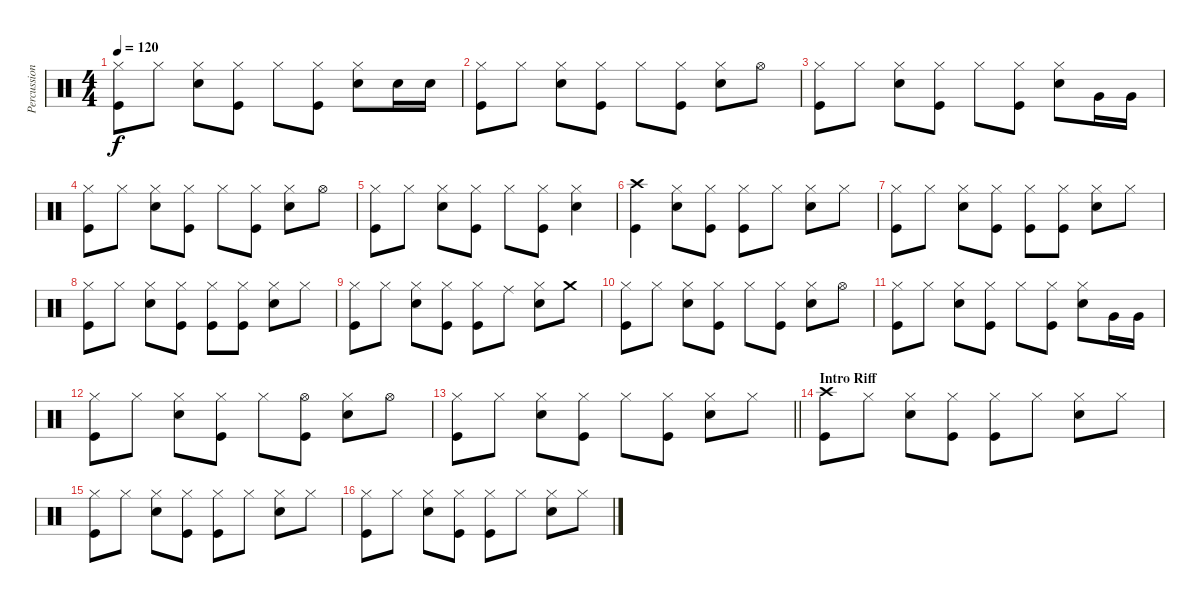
\track ("Percussion" "Percussion") {instrument percussion}
\staff {score}
\articulation defaults
\ts (4 4)
\tempo 120
\clef neutral
\ks c
("Kick (hit)" "Hi-Hat (closed)").8{dy f} "Hi-Hat (closed)".8 ("Hi-Hat (closed)" "Snare (hit) 2").8 ("Kick (hit)" "Hi-Hat (closed)").8 "Hi-Hat (closed)".8 ("Kick (hit)" "Hi-Hat (closed)").8 ("Hi-Hat (closed)" "Snare (hit) 2").8 "Snare (hit) 2".16 "Snare (hit) 2".16 |
("Kick (hit)" "Hi-Hat (closed)").8 "Hi-Hat (closed)".8 ("Hi-Hat (closed)" "Snare (hit) 2").8 ("Kick (hit)" "Hi-Hat (closed)").8 "Hi-Hat (closed)".8 ("Kick (hit)" "Hi-Hat (closed)").8 ("Hi-Hat (closed)" "Snare (hit) 2").8 "Hi-Hat (open)".8 |
("Kick (hit)" "Hi-Hat (closed)").8 "Hi-Hat (closed)".8 ("Hi-Hat (closed)" "Snare (hit) 2").8 ("Kick (hit)" "Hi-Hat (closed)").8 "Hi-Hat (closed)".8 ("Kick (hit)" "Hi-Hat (closed)").8 ("Hi-Hat (closed)" "Snare (hit) 2").8 "Very Low Tom (hit)".16 "Very Low Tom (hit)".16 |
("Kick (hit)" "Hi-Hat (closed)").8 "Hi-Hat (closed)".8 ("Hi-Hat (closed)" "Snare (hit) 2").8 ("Kick (hit)" "Hi-Hat (closed)").8 "Hi-Hat (closed)".8 ("Kick (hit)" "Hi-Hat (closed)").8 ("Hi-Hat (closed)" "Snare (hit) 2").8 "Hi-Hat (open)".8 |
("Kick (hit)" "Hi-Hat (closed)").8 "Hi-Hat (closed)".8 ("Hi-Hat (closed)" "Snare (hit) 2").8 ("Kick (hit)" "Hi-Hat (closed)").8 "Hi-Hat (closed)".8 ("Kick (hit)" "Hi-Hat (closed)").8 ("Hi-Hat (closed)" "Snare (hit) 2").4 |
("Kick (hit)" "Crash high (hit)").4 ("Hi-Hat (closed)" "Snare (hit) 2").8 ("Kick (hit)" "Hi-Hat (closed)").8 ("Kick (hit)" "Hi-Hat (closed)").8 "Hi-Hat (closed)".8 ("Hi-Hat (closed)" "Snare (hit) 2").8 "Hi-Hat (closed)".8 |
("Kick (hit)" "Hi-Hat (closed)").8 "Hi-Hat (closed)".8 ("Hi-Hat (closed)" "Snare (hit) 2").8 ("Kick (hit)" "Hi-Hat (closed)").8 ("Kick (hit)" "Hi-Hat (closed)").8 ("Kick (hit)" "Hi-Hat (closed)").8 ("Hi-Hat (closed)" "Snare (hit) 2").8 "Hi-Hat (closed)".8 |
("Kick (hit)" "Hi-Hat (closed)").8 "Hi-Hat (closed)".8 ("Hi-Hat (closed)" "Snare (hit) 2").8 ("Kick (hit)" "Hi-Hat (closed)").8 ("Kick (hit)" "Hi-Hat (closed)").8 ("Kick (hit)" "Hi-Hat (closed)").8 ("Hi-Hat (closed)" "Snare (hit) 2").8 "Hi-Hat (closed)".8 |
("Kick (hit)" "Hi-Hat (closed)").8 "Hi-Hat (closed)".8 ("Hi-Hat (closed)" "Snare (hit) 2").8 ("Kick (hit)" "Hi-Hat (closed)").8 ("Kick (hit)" "Hi-Hat (closed)").8 "Ride (middle)".8 ("Hi-Hat (closed)" "Snare (hit) 2").8 "Crash medium (hit)".8 |
("Kick (hit)" "Hi-Hat (closed)").8 "Hi-Hat (closed)".8 ("Hi-Hat (closed)" "Snare (hit) 2").8 ("Kick (hit)" "Hi-Hat (closed)").8 "Hi-Hat (closed)".8 ("Kick (hit)" "Hi-Hat (closed)").8 ("Hi-Hat (closed)" "Snare (hit) 2").8 "Hi-Hat (open)".8 |
("Kick (hit)" "Hi-Hat (closed)").8 "Hi-Hat (closed)".8 ("Hi-Hat (closed)" "Snare (hit) 2").8 ("Kick (hit)" "Hi-Hat (closed)").8 "Hi-Hat (closed)".8 ("Kick (hit)" "Hi-Hat (closed)").8 ("Hi-Hat (closed)" "Snare (hit) 2").8 "Very Low Tom (hit)".16 "Very Low Tom (hit)".16 |
("Kick (hit)" "Hi-Hat (closed)").8 "Hi-Hat (closed)".8 ("Hi-Hat (closed)" "Snare (hit) 2").8 ("Kick (hit)" "Hi-Hat (closed)").8 "Hi-Hat (closed)".8 ("Kick (hit)" "Hi-Hat (open)").8 ("Hi-Hat (closed)" "Snare (hit) 2").8 "Hi-Hat (open)".8 |
\barLineRight lightlight
("Kick (hit)" "Hi-Hat (closed)").8 "Hi-Hat (closed)".8 ("Hi-Hat (closed)" "Snare (hit) 2").8 ("Kick (hit)" "Hi-Hat (closed)").8 "Hi-Hat (closed)".8 ("Kick (hit)" "Hi-Hat (closed)").8 ("Hi-Hat (closed)" "Snare (hit) 2").8 "Hi-Hat (closed)".8 |
\section ("" "Intro Riff")
("Kick (hit)" "Crash high (hit)").8 "Hi-Hat (closed)".8 ("Hi-Hat (closed)" "Snare (hit) 2").8 ("Kick (hit)" "Hi-Hat (closed)").8 ("Kick (hit)" "Hi-Hat (closed)").8 "Hi-Hat (closed)".8 ("Hi-Hat (closed)" "Snare (hit) 2").8 "Hi-Hat (closed)".8 |
("Kick (hit)" "Hi-Hat (closed)").8 "Hi-Hat (closed)".8 ("Hi-Hat (closed)" "Snare (hit) 2").8 ("Kick (hit)" "Hi-Hat (closed)").8 ("Kick (hit)" "Hi-Hat (closed)").8 "Hi-Hat (closed)".8 ("Hi-Hat (closed)" "Snare (hit) 2").8 "Hi-Hat (closed)".8 |
("Kick (hit)" "Hi-Hat (closed)").8 "Hi-Hat (closed)".8 ("Hi-Hat (closed)" "Snare (hit) 2").8 ("Kick (hit)" "Hi-Hat (closed)").8 ("Kick (hit)" "Hi-Hat (closed)").8 "Hi-Hat (closed)".8 ("Hi-Hat (closed)" "Snare (hit) 2").8 "Hi-Hat (closed)".8
